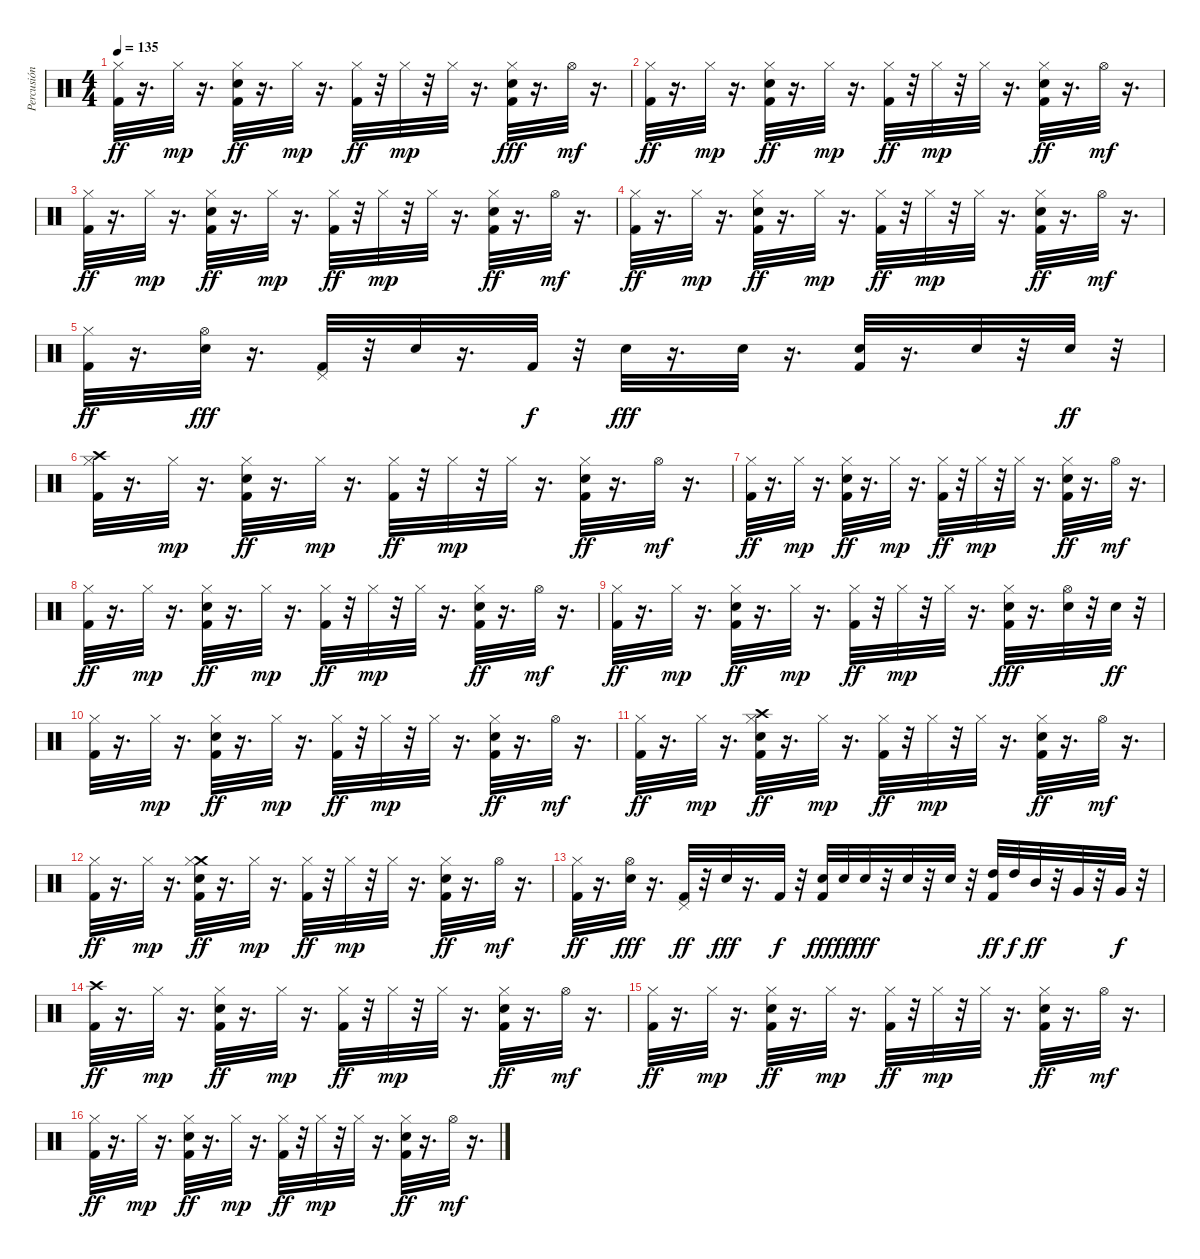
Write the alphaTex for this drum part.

\track ("Percusión" "Percusión") {instrument percussion}
\staff {score}
\articulation defaults
\ts (4 4)
\tempo 135
\clef neutral
\ks c
("Hi-Hat (closed)" "Kick (hit) 2").32{dy ff} r.16{d} "Hi-Hat (closed)".32{dy mp} r.16{d} ("Hi-Hat (closed)" "Electric Snare (hit)" "Kick (hit) 2").32{dy ff} r.16{d} "Hi-Hat (closed)".32{dy mp} r.16{d} ("Hi-Hat (closed)" "Kick (hit) 2").32{dy ff} r.32 "Hi-Hat (closed)".32{dy mp} r.32 "Hi-Hat (closed)".32 r.16{d} ("Hi-Hat (closed)" "Electric Snare (hit)" "Kick (hit) 2").32{dy fff} r.16{d} "Hi-Hat (open)".32{dy mf} r.16{d} |
("Hi-Hat (closed)" "Kick (hit) 2").32{dy ff} r.16{d} "Hi-Hat (closed)".32{dy mp} r.16{d} ("Hi-Hat (closed)" "Electric Snare (hit)" "Kick (hit) 2").32{dy ff} r.16{d} "Hi-Hat (closed)".32{dy mp} r.16{d} ("Hi-Hat (closed)" "Kick (hit) 2").32{dy ff} r.32 "Hi-Hat (closed)".32{dy mp} r.32 "Hi-Hat (closed)".32 r.16{d} ("Hi-Hat (closed)" "Electric Snare (hit)" "Kick (hit) 2").32{dy ff} r.16{d} "Hi-Hat (open)".32{dy mf} r.16{d} |
("Hi-Hat (closed)" "Kick (hit) 2").32{dy ff} r.16{d} "Hi-Hat (closed)".32{dy mp} r.16{d} ("Hi-Hat (closed)" "Electric Snare (hit)" "Kick (hit) 2").32{dy ff} r.16{d} "Hi-Hat (closed)".32{dy mp} r.16{d} ("Hi-Hat (closed)" "Kick (hit) 2").32{dy ff} r.32 "Hi-Hat (closed)".32{dy mp} r.32 "Hi-Hat (closed)".32 r.16{d} ("Hi-Hat (closed)" "Electric Snare (hit)" "Kick (hit) 2").32{dy ff} r.16{d} "Hi-Hat (open)".32{dy mf} r.16{d} |
("Hi-Hat (closed)" "Kick (hit) 2").32{dy ff} r.16{d} "Hi-Hat (closed)".32{dy mp} r.16{d} ("Hi-Hat (closed)" "Electric Snare (hit)" "Kick (hit) 2").32{dy ff} r.16{d} "Hi-Hat (closed)".32{dy mp} r.16{d} ("Hi-Hat (closed)" "Kick (hit) 2").32{dy ff} r.32 "Hi-Hat (closed)".32{dy mp} r.32 "Hi-Hat (closed)".32 r.16{d} ("Hi-Hat (closed)" "Electric Snare (hit)" "Kick (hit) 2").32{dy ff} r.16{d} "Hi-Hat (open)".32{dy mf} r.16{d} |
("Hi-Hat (closed)" "Kick (hit) 2").32{dy ff} r.16{d} ("Hi-Hat (open)" "Electric Snare (hit)").32{dy fff} r.16{d} ("Pedal Hi-Hat (hit)" "Kick (hit) 2").32 r.32 "Electric Snare (hit)".32 r.16{d} "Kick (hit) 2".32{dy f} r.32 "Electric Snare (hit)".32{dy fff} r.16{d} "Electric Snare (hit)".32 r.16{d} ("Electric Snare (hit)" "Kick (hit) 2").32 r.16{d} "Electric Snare (hit)".32 r.32 "Electric Snare (hit)".32{dy ff} r.32 |
("Crash high (hit)" "Hi-Hat (closed)" "Kick (hit) 2").32 r.16{d} "Hi-Hat (closed)".32{dy mp} r.16{d} ("Hi-Hat (closed)" "Electric Snare (hit)" "Kick (hit) 2").32{dy ff} r.16{d} "Hi-Hat (closed)".32{dy mp} r.16{d} ("Hi-Hat (closed)" "Kick (hit) 2").32{dy ff} r.32 "Hi-Hat (closed)".32{dy mp} r.32 "Hi-Hat (closed)".32 r.16{d} ("Hi-Hat (closed)" "Electric Snare (hit)" "Kick (hit) 2").32{dy ff} r.16{d} "Hi-Hat (open)".32{dy mf} r.16{d} |
("Hi-Hat (closed)" "Kick (hit) 2").32{dy ff} r.16{d} "Hi-Hat (closed)".32{dy mp} r.16{d} ("Hi-Hat (closed)" "Electric Snare (hit)" "Kick (hit) 2").32{dy ff} r.16{d} "Hi-Hat (closed)".32{dy mp} r.16{d} ("Hi-Hat (closed)" "Kick (hit) 2").32{dy ff} r.32 "Hi-Hat (closed)".32{dy mp} r.32 "Hi-Hat (closed)".32 r.16{d} ("Hi-Hat (closed)" "Electric Snare (hit)" "Kick (hit) 2").32{dy ff} r.16{d} "Hi-Hat (open)".32{dy mf} r.16{d} |
("Hi-Hat (closed)" "Kick (hit) 2").32{dy ff} r.16{d} "Hi-Hat (closed)".32{dy mp} r.16{d} ("Hi-Hat (closed)" "Electric Snare (hit)" "Kick (hit) 2").32{dy ff} r.16{d} "Hi-Hat (closed)".32{dy mp} r.16{d} ("Hi-Hat (closed)" "Kick (hit) 2").32{dy ff} r.32 "Hi-Hat (closed)".32{dy mp} r.32 "Hi-Hat (closed)".32 r.16{d} ("Hi-Hat (closed)" "Electric Snare (hit)" "Kick (hit) 2").32{dy ff} r.16{d} "Hi-Hat (open)".32{dy mf} r.16{d} |
("Hi-Hat (closed)" "Kick (hit) 2").32{dy ff} r.16{d} "Hi-Hat (closed)".32{dy mp} r.16{d} ("Hi-Hat (closed)" "Electric Snare (hit)" "Kick (hit) 2").32{dy ff} r.16{d} "Hi-Hat (closed)".32{dy mp} r.16{d} ("Hi-Hat (closed)" "Kick (hit) 2").32{dy ff} r.32 "Hi-Hat (closed)".32{dy mp} r.32 "Hi-Hat (closed)".32 r.16{d} ("Hi-Hat (closed)" "Electric Snare (hit)" "Kick (hit) 2").32{dy fff} r.16{d} ("Hi-Hat (open)" "Electric Snare (hit)").32 r.32 "Electric Snare (hit)".32{dy ff} r.32 |
("Hi-Hat (closed)" "Kick (hit) 2").32 r.16{d} "Hi-Hat (closed)".32{dy mp} r.16{d} ("Hi-Hat (closed)" "Electric Snare (hit)" "Kick (hit) 2").32{dy ff} r.16{d} "Hi-Hat (closed)".32{dy mp} r.16{d} ("Hi-Hat (closed)" "Kick (hit) 2").32{dy ff} r.32 "Hi-Hat (closed)".32{dy mp} r.32 "Hi-Hat (closed)".32 r.16{d} ("Hi-Hat (closed)" "Electric Snare (hit)" "Kick (hit) 2").32{dy ff} r.16{d} "Hi-Hat (open)".32{dy mf} r.16{d} |
("Hi-Hat (closed)" "Kick (hit) 2").32{dy ff} r.16{d} "Hi-Hat (closed)".32{dy mp} r.16{d} ("Crash high (hit)" "Hi-Hat (closed)" "Electric Snare (hit)" "Kick (hit) 2").32{dy ff} r.16{d} "Hi-Hat (closed)".32{dy mp} r.16{d} ("Hi-Hat (closed)" "Kick (hit) 2").32{dy ff} r.32 "Hi-Hat (closed)".32{dy mp} r.32 "Hi-Hat (closed)".32 r.16{d} ("Hi-Hat (closed)" "Electric Snare (hit)" "Kick (hit) 2").32{dy ff} r.16{d} "Hi-Hat (open)".32{dy mf} r.16{d} |
("Hi-Hat (closed)" "Kick (hit) 2").32{dy ff} r.16{d} "Hi-Hat (closed)".32{dy mp} r.16{d} ("Crash medium (hit)" "Hi-Hat (closed)" "Electric Snare (hit)" "Kick (hit) 2").32{dy ff} r.16{d} "Hi-Hat (closed)".32{dy mp} r.16{d} ("Hi-Hat (closed)" "Kick (hit) 2").32{dy ff} r.32 "Hi-Hat (closed)".32{dy mp} r.32 "Hi-Hat (closed)".32 r.16{d} ("Hi-Hat (closed)" "Electric Snare (hit)" "Kick (hit) 2").32{dy ff} r.16{d} "Hi-Hat (open)".32{dy mf} r.16{d} |
("Hi-Hat (closed)" "Kick (hit) 2").32{dy ff} r.16{d} ("Hi-Hat (open)" "Electric Snare (hit)").32{dy fff} r.16{d} ("Pedal Hi-Hat (hit)" "Kick (hit) 2").32{dy ff} r.32 "Electric Snare (hit)".32{dy fff} r.16{d} "Kick (hit) 2".32{dy f} r.32 ("Electric Snare (hit)" "Kick (hit) 2").32{dy fff} "Electric Snare (hit)".32{dy ff} "Electric Snare (hit)".32{dy fff} r.32 "Electric Snare (hit)".32 r.32 "Electric Snare (hit)".32 r.32 ("High Tom (hit)" "Kick (hit) 2").32{dy ff} "High Tom (hit)".32{dy f} "Mid Tom (hit)".32{dy ff} r.32 "Very Low Tom (hit)".32 r.32 "Very Low Tom (hit)".32{dy f} r.32 |
("Crash high (hit)" "Kick (hit) 2").32{dy ff} r.16{d} "Hi-Hat (closed)".32{dy mp} r.16{d} ("Hi-Hat (closed)" "Electric Snare (hit)" "Kick (hit) 2").32{dy ff} r.16{d} "Hi-Hat (closed)".32{dy mp} r.16{d} ("Hi-Hat (closed)" "Kick (hit) 2").32{dy ff} r.32 "Hi-Hat (closed)".32{dy mp} r.32 "Hi-Hat (closed)".32 r.16{d} ("Hi-Hat (closed)" "Electric Snare (hit)" "Kick (hit) 2").32{dy ff} r.16{d} "Hi-Hat (open)".32{dy mf} r.16{d} |
("Hi-Hat (closed)" "Kick (hit) 2").32{dy ff} r.16{d} "Hi-Hat (closed)".32{dy mp} r.16{d} ("Hi-Hat (closed)" "Electric Snare (hit)" "Kick (hit) 2").32{dy ff} r.16{d} "Hi-Hat (closed)".32{dy mp} r.16{d} ("Hi-Hat (closed)" "Kick (hit) 2").32{dy ff} r.32 "Hi-Hat (closed)".32{dy mp} r.32 "Hi-Hat (closed)".32 r.16{d} ("Hi-Hat (closed)" "Electric Snare (hit)" "Kick (hit) 2").32{dy ff} r.16{d} "Hi-Hat (open)".32{dy mf} r.16{d} |
("Hi-Hat (closed)" "Kick (hit) 2").32{dy ff} r.16{d} "Hi-Hat (closed)".32{dy mp} r.16{d} ("Hi-Hat (closed)" "Electric Snare (hit)" "Kick (hit) 2").32{dy ff} r.16{d} "Hi-Hat (closed)".32{dy mp} r.16{d} ("Hi-Hat (closed)" "Kick (hit) 2").32{dy ff} r.32 "Hi-Hat (closed)".32{dy mp} r.32 "Hi-Hat (closed)".32 r.16{d} ("Hi-Hat (closed)" "Electric Snare (hit)" "Kick (hit) 2").32{dy ff} r.16{d} "Hi-Hat (open)".32{dy mf} r.16{d}
